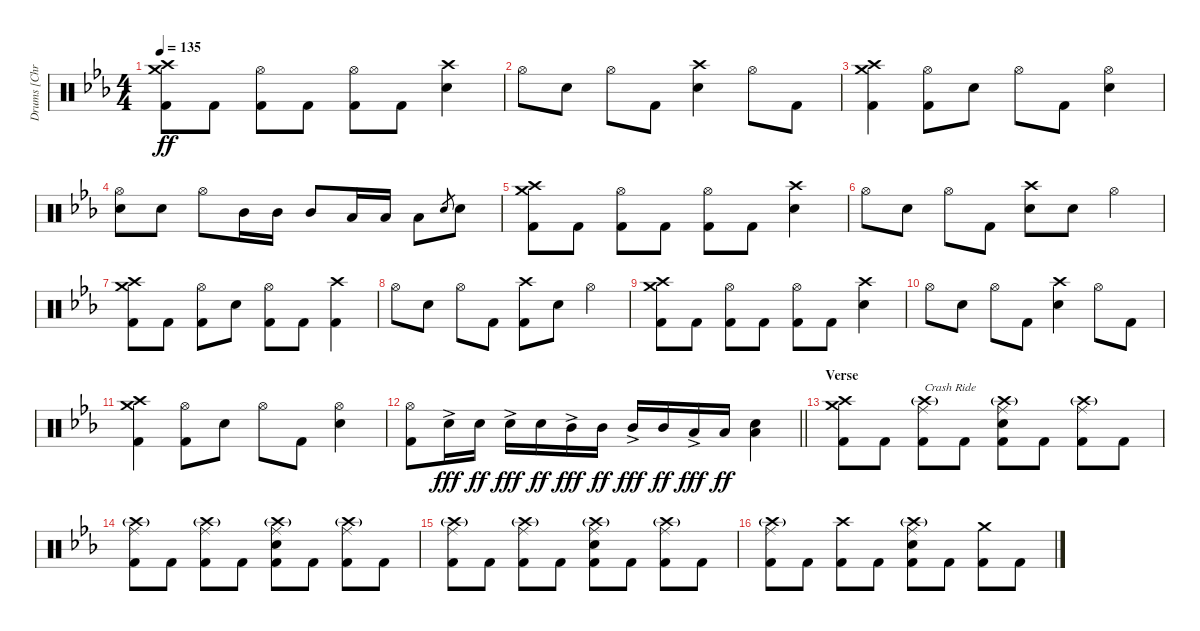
\track ("Drums [Chris Hornbrook]" "Drums [Chr") {instrument percussion}
\staff {score}
\articulation defaults
\ts (4 4)
\tempo 135
\clef neutral
\ks cminor
("Crash medium (hit)" "Crash high (hit)" "Kick (hit) 2").8{dy ff} "Kick (hit) 2".8 ("Hi-Hat (open)" "Kick (hit) 2").8 "Kick (hit) 2".8 ("Hi-Hat (open)" "Kick (hit) 2").8 "Kick (hit) 2".8 ("Crash high (hit)" "Electric Snare (hit)").4 |
"Hi-Hat (open)".8 "Electric Snare (hit)".8 "Hi-Hat (open)".8 "Kick (hit) 2".8 ("Crash high (hit)" "Electric Snare (hit)").4 "Hi-Hat (open)".8 "Kick (hit) 2".8 |
("Crash medium (hit)" "Crash high (hit)" "Kick (hit) 2").4 ("Hi-Hat (open)" "Kick (hit) 2").8 "Electric Snare (hit)".8 "Hi-Hat (open)".8 "Kick (hit) 2".8 ("Hi-Hat (open)" "Electric Snare (hit)").4 |
("Hi-Hat (open)" "Electric Snare (hit)").8 "Electric Snare (hit)".8 "Hi-Hat (open)".8 "Mid Tom (hit)".16 "Mid Tom (hit)".16 "Mid Tom (hit)".8 "Low Tom (hit)".16 "Low Tom (hit)".16 "Low Tom (hit)".8 "Electric Snare (hit)".8{gr} "Electric Snare (hit)".8 |
("Crash medium (hit)" "Crash high (hit)" "Kick (hit) 2").8 "Kick (hit) 2".8 ("Hi-Hat (open)" "Kick (hit) 2").8 "Kick (hit) 2".8 ("Hi-Hat (open)" "Kick (hit) 2").8 "Kick (hit) 2".8 ("Crash high (hit)" "Electric Snare (hit)").4 |
"Hi-Hat (open)".8 "Electric Snare (hit)".8 "Hi-Hat (open)".8 "Kick (hit) 2".8 ("Crash high (hit)" "Electric Snare (hit)").8 "Electric Snare (hit)".8 "Hi-Hat (open)".4 |
("Crash medium (hit)" "Crash high (hit)" "Kick (hit) 2").8 "Kick (hit) 2".8 ("Hi-Hat (open)" "Kick (hit) 2").8 "Electric Snare (hit)".8 ("Hi-Hat (open)" "Kick (hit) 2").8 "Kick (hit) 2".8 ("Crash high (hit)" "Kick (hit) 2").4 |
"Hi-Hat (open)".8 "Electric Snare (hit)".8 "Hi-Hat (open)".8 "Kick (hit) 2".8 ("Crash high (hit)" "Kick (hit) 2").8 "Electric Snare (hit)".8 "Hi-Hat (open)".4 |
("Crash medium (hit)" "Crash high (hit)" "Kick (hit) 2").8 "Kick (hit) 2".8 ("Hi-Hat (open)" "Kick (hit) 2").8 "Kick (hit) 2".8 ("Hi-Hat (open)" "Kick (hit) 2").8 "Kick (hit) 2".8 ("Crash high (hit)" "Electric Snare (hit)").4 |
"Hi-Hat (open)".8 "Electric Snare (hit)".8 "Hi-Hat (open)".8 "Kick (hit) 2".8 ("Crash high (hit)" "Electric Snare (hit)").4 "Hi-Hat (open)".8 "Kick (hit) 2".8 |
("Crash medium (hit)" "Crash high (hit)" "Kick (hit) 2").4 ("Hi-Hat (open)" "Kick (hit) 2").8 "Electric Snare (hit)".8 "Hi-Hat (open)".8 "Kick (hit) 2".8 ("Hi-Hat (open)" "Electric Snare (hit)").4 |
\barLineRight lightlight
("Hi-Hat (open)" "Kick (hit) 2").8 "Electric Snare (hit)"{ac}.16{dy fff} "Electric Snare (hit)".16{dy ff} "Electric Snare (hit)"{ac}.16{dy fff} "Electric Snare (hit)".16{dy ff} "Mid Tom (hit)"{ac}.16{dy fff} "Mid Tom (hit)".16{dy ff} "Mid Tom (hit)"{ac}.16{dy fff} "Mid Tom (hit)".16{dy ff} "Low Tom (hit)"{ac}.16{dy fff} "Low Tom (hit)".16{dy ff} ("Low Tom (hit)" "Electric Snare (hit)").4{bu 60} |
\section ("" "Verse")
("Crash medium (hit)" "Crash high (hit)" "Kick (hit) 2").8 "Kick (hit) 2".8 ("Crash high (hit)"{g} "Ride (middle)" "Kick (hit) 2").8{txt "Crash Ride"} "Kick (hit) 2".8 ("Crash high (hit)"{g} "Ride (middle)" "Electric Snare (hit)" "Kick (hit) 2").8 "Kick (hit) 2".8 ("Crash high (hit)"{g} "Ride (middle)" "Kick (hit) 2").8 "Kick (hit) 2".8 |
("Crash high (hit)"{g} "Ride (middle)" "Kick (hit) 2").8 "Kick (hit) 2".8 ("Crash high (hit)"{g} "Ride (middle)" "Kick (hit) 2").8 "Kick (hit) 2".8 ("Crash high (hit)"{g} "Ride (middle)" "Electric Snare (hit)" "Kick (hit) 2").8 "Kick (hit) 2".8 ("Crash high (hit)"{g} "Ride (middle)" "Kick (hit) 2").8 "Kick (hit) 2".8 |
("Crash high (hit)"{g} "Ride (middle)" "Kick (hit) 2").8 "Kick (hit) 2".8 ("Crash high (hit)"{g} "Ride (middle)" "Kick (hit) 2").8 "Kick (hit) 2".8 ("Crash high (hit)"{g} "Ride (middle)" "Electric Snare (hit)" "Kick (hit) 2").8 "Kick (hit) 2".8 ("Crash high (hit)"{g} "Ride (middle)" "Kick (hit) 2").8 "Kick (hit) 2".8 |
("Crash high (hit)"{g} "Ride (middle)" "Kick (hit) 2").8 "Kick (hit) 2".8 ("Crash high (hit)" "Kick (hit) 2").8 "Kick (hit) 2".8 ("Crash high (hit)"{g} "Ride (middle)" "Electric Snare (hit)" "Kick (hit) 2").8 "Kick (hit) 2".8 ("Crash medium (hit)" "Kick (hit) 2").8 "Kick (hit) 2".8
